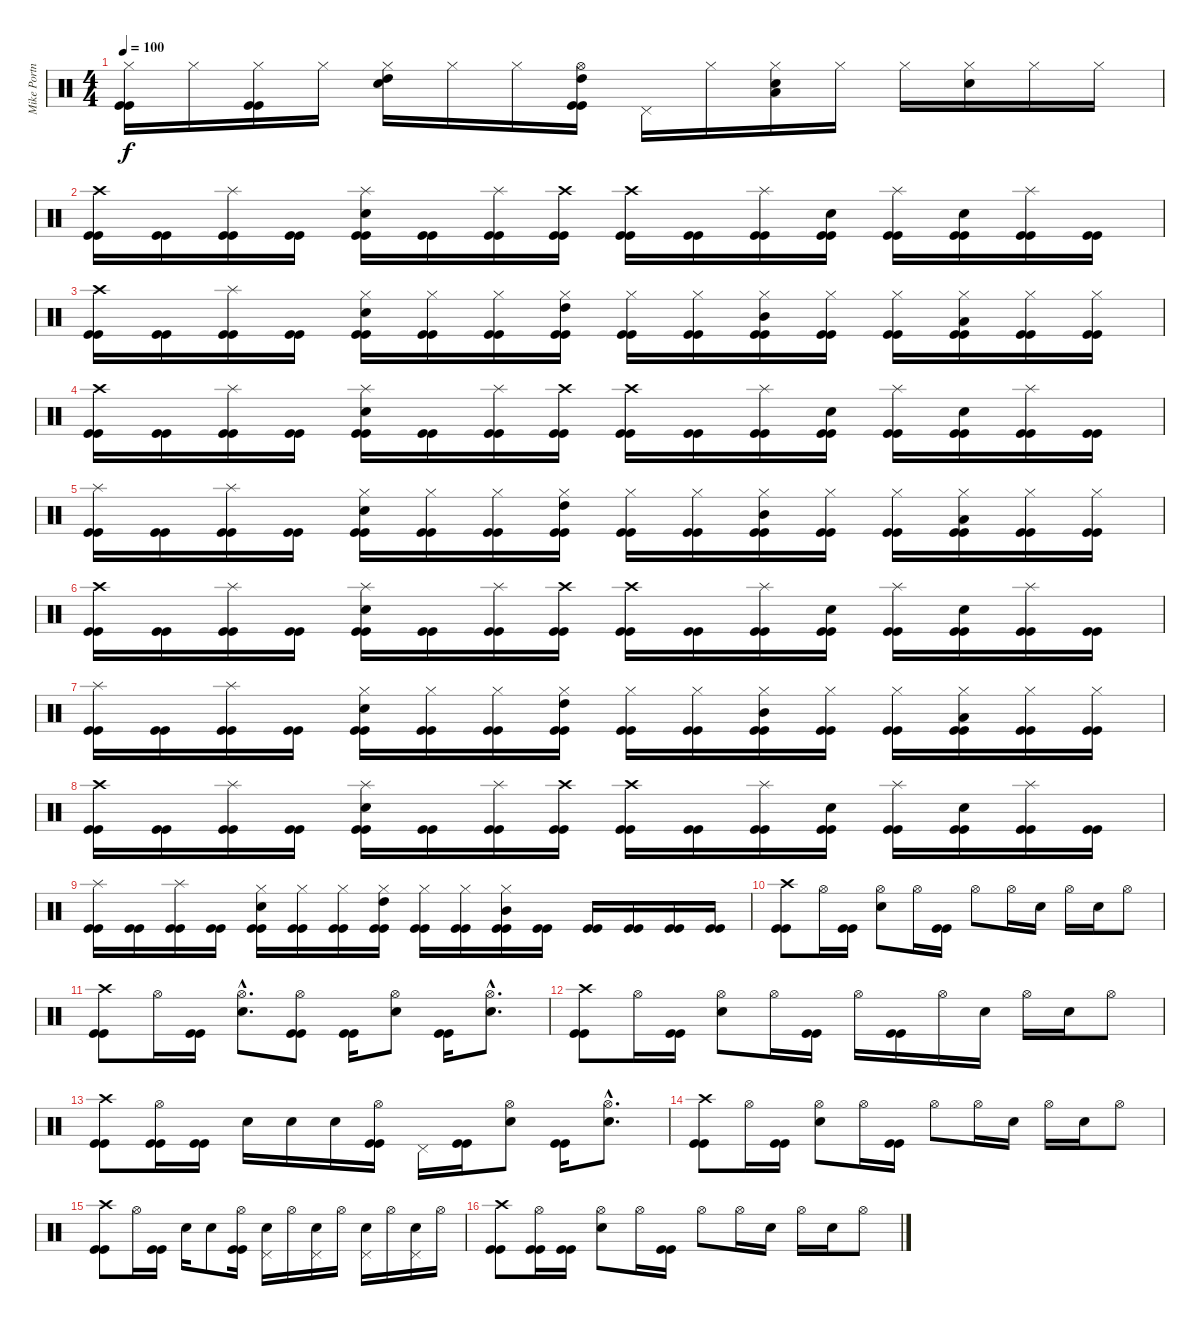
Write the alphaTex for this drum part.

\track ("Mike Portnoy - Drum" "Mike Portn") {instrument percussion}
\staff {score}
\articulation defaults
\ts (4 4)
\tempo 100
\clef neutral
\ks c
("Hi-Hat (closed)" "Kick (hit)" "Kick (hit)").16{dy f} "Hi-Hat (closed)".16 ("Hi-Hat (closed)" "Kick (hit)" "Kick (hit)").16 "Hi-Hat (closed)".16 ("High Tom (hit)" "Hi-Hat (closed)" "Snare (hit) 2").16 "Hi-Hat (closed)".16 "Hi-Hat (closed)".16 ("High Tom (hit)" "Hi-Hat (open)" "Kick (hit)" "Kick (hit)").16 "Pedal Hi-Hat (hit)".16 "Hi-Hat (closed)".16 ("Low Tom (hit)" "Hi-Hat (closed)" "Snare (hit) 2").16 "Hi-Hat (closed)".16 "Hi-Hat (closed)".16 ("Hi-Hat (closed)" "Snare (hit) 2").16 "Hi-Hat (closed)".16 "Hi-Hat (closed)".16 |
("Crash high (hit)" "Kick (hit)" "Kick (hit)").16 ("Kick (hit)" "Kick (hit)").16 ("Splash (hit)" "Kick (hit)" "Kick (hit)").16 ("Kick (hit)" "Kick (hit)").16 ("Splash (hit)" "Snare (hit) 2" "Kick (hit)" "Kick (hit)").16 ("Kick (hit)" "Kick (hit)").16 ("Splash (hit)" "Kick (hit)" "Kick (hit)").16 ("Crash high (hit)" "Kick (hit)" "Kick (hit)").16 ("Crash high (hit)" "Kick (hit)" "Kick (hit)").16 ("Kick (hit)" "Kick (hit)").16 ("Splash (hit)" "Kick (hit)" "Kick (hit)").16 ("Snare (hit) 2" "Kick (hit)" "Kick (hit)").16 ("Splash (hit)" "Kick (hit)" "Kick (hit)").16 ("Snare (hit) 2" "Kick (hit)" "Kick (hit)").16 ("Splash (hit)" "Kick (hit)" "Kick (hit)").16 ("Kick (hit)" "Kick (hit)").16 |
("Crash high (hit)" "Kick (hit)" "Kick (hit)").16 ("Kick (hit)" "Kick (hit)").16 ("Splash (hit)" "Kick (hit)" "Kick (hit)").16 ("Kick (hit)" "Kick (hit)").16 ("Hi-Hat (closed)" "Snare (hit) 2" "Kick (hit)" "Kick (hit)").16 ("Hi-Hat (closed)" "Kick (hit)" "Kick (hit)").16 ("Hi-Hat (closed)" "Kick (hit)" "Kick (hit)").16 ("Hi-Hat (closed)" "High Tom (hit)" "Kick (hit)" "Kick (hit)").16 ("Hi-Hat (closed)" "Kick (hit)" "Kick (hit)").16 ("Hi-Hat (closed)" "Kick (hit)" "Kick (hit)").16 ("Hi-Hat (closed)" "Mid Tom (hit)" "Kick (hit)" "Kick (hit)").16 ("Hi-Hat (closed)" "Kick (hit)" "Kick (hit)").16 ("Hi-Hat (closed)" "Kick (hit)" "Kick (hit)").16 ("Hi-Hat (closed)" "Low Tom (hit)" "Kick (hit)" "Kick (hit)").16 ("Hi-Hat (closed)" "Kick (hit)" "Kick (hit)").16 ("Hi-Hat (closed)" "Kick (hit)" "Kick (hit)").16 |
("Crash high (hit)" "Kick (hit)" "Kick (hit)").16 ("Kick (hit)" "Kick (hit)").16 ("Splash (hit)" "Kick (hit)" "Kick (hit)").16 ("Kick (hit)" "Kick (hit)").16 ("Splash (hit)" "Snare (hit) 2" "Kick (hit)" "Kick (hit)").16 ("Kick (hit)" "Kick (hit)").16 ("Splash (hit)" "Kick (hit)" "Kick (hit)").16 ("Crash high (hit)" "Kick (hit)" "Kick (hit)").16 ("Crash high (hit)" "Kick (hit)" "Kick (hit)").16 ("Kick (hit)" "Kick (hit)").16 ("Splash (hit)" "Kick (hit)" "Kick (hit)").16 ("Snare (hit) 2" "Kick (hit)" "Kick (hit)").16 ("Splash (hit)" "Kick (hit)" "Kick (hit)").16 ("Snare (hit) 2" "Kick (hit)" "Kick (hit)").16 ("Splash (hit)" "Kick (hit)" "Kick (hit)").16 ("Kick (hit)" "Kick (hit)").16 |
("Splash (hit)" "Kick (hit)" "Kick (hit)").16 ("Kick (hit)" "Kick (hit)").16 ("Splash (hit)" "Kick (hit)" "Kick (hit)").16 ("Kick (hit)" "Kick (hit)").16 ("Hi-Hat (closed)" "Snare (hit) 2" "Kick (hit)" "Kick (hit)").16 ("Hi-Hat (closed)" "Kick (hit)" "Kick (hit)").16 ("Hi-Hat (closed)" "Kick (hit)" "Kick (hit)").16 ("Hi-Hat (closed)" "High Tom (hit)" "Kick (hit)" "Kick (hit)").16 ("Hi-Hat (closed)" "Kick (hit)" "Kick (hit)").16 ("Hi-Hat (closed)" "Kick (hit)" "Kick (hit)").16 ("Hi-Hat (closed)" "Mid Tom (hit)" "Kick (hit)" "Kick (hit)").16 ("Hi-Hat (closed)" "Kick (hit)" "Kick (hit)").16 ("Hi-Hat (closed)" "Kick (hit)" "Kick (hit)").16 ("Hi-Hat (closed)" "Low Tom (hit)" "Kick (hit)" "Kick (hit)").16 ("Hi-Hat (closed)" "Kick (hit)" "Kick (hit)").16 ("Hi-Hat (closed)" "Kick (hit)" "Kick (hit)").16 |
("Crash high (hit)" "Kick (hit)" "Kick (hit)").16 ("Kick (hit)" "Kick (hit)").16 ("Splash (hit)" "Kick (hit)" "Kick (hit)").16 ("Kick (hit)" "Kick (hit)").16 ("Splash (hit)" "Snare (hit) 2" "Kick (hit)" "Kick (hit)").16 ("Kick (hit)" "Kick (hit)").16 ("Splash (hit)" "Kick (hit)" "Kick (hit)").16 ("Crash high (hit)" "Kick (hit)" "Kick (hit)").16 ("Crash high (hit)" "Kick (hit)" "Kick (hit)").16 ("Kick (hit)" "Kick (hit)").16 ("Splash (hit)" "Kick (hit)" "Kick (hit)").16 ("Snare (hit) 2" "Kick (hit)" "Kick (hit)").16 ("Splash (hit)" "Kick (hit)" "Kick (hit)").16 ("Snare (hit) 2" "Kick (hit)" "Kick (hit)").16 ("Splash (hit)" "Kick (hit)" "Kick (hit)").16 ("Kick (hit)" "Kick (hit)").16 |
("Splash (hit)" "Kick (hit)" "Kick (hit)").16 ("Kick (hit)" "Kick (hit)").16 ("Splash (hit)" "Kick (hit)" "Kick (hit)").16 ("Kick (hit)" "Kick (hit)").16 ("Hi-Hat (closed)" "Snare (hit) 2" "Kick (hit)" "Kick (hit)").16 ("Hi-Hat (closed)" "Kick (hit)" "Kick (hit)").16 ("Hi-Hat (closed)" "Kick (hit)" "Kick (hit)").16 ("Hi-Hat (closed)" "High Tom (hit)" "Kick (hit)" "Kick (hit)").16 ("Hi-Hat (closed)" "Kick (hit)" "Kick (hit)").16 ("Hi-Hat (closed)" "Kick (hit)" "Kick (hit)").16 ("Hi-Hat (closed)" "Mid Tom (hit)" "Kick (hit)" "Kick (hit)").16 ("Hi-Hat (closed)" "Kick (hit)" "Kick (hit)").16 ("Hi-Hat (closed)" "Kick (hit)" "Kick (hit)").16 ("Hi-Hat (closed)" "Low Tom (hit)" "Kick (hit)" "Kick (hit)").16 ("Hi-Hat (closed)" "Kick (hit)" "Kick (hit)").16 ("Hi-Hat (closed)" "Kick (hit)" "Kick (hit)").16 |
("Crash high (hit)" "Kick (hit)" "Kick (hit)").16 ("Kick (hit)" "Kick (hit)").16 ("Splash (hit)" "Kick (hit)" "Kick (hit)").16 ("Kick (hit)" "Kick (hit)").16 ("Splash (hit)" "Snare (hit) 2" "Kick (hit)" "Kick (hit)").16 ("Kick (hit)" "Kick (hit)").16 ("Splash (hit)" "Kick (hit)" "Kick (hit)").16 ("Crash high (hit)" "Kick (hit)" "Kick (hit)").16 ("Crash high (hit)" "Kick (hit)" "Kick (hit)").16 ("Kick (hit)" "Kick (hit)").16 ("Splash (hit)" "Kick (hit)" "Kick (hit)").16 ("Snare (hit) 2" "Kick (hit)" "Kick (hit)").16 ("Splash (hit)" "Kick (hit)" "Kick (hit)").16 ("Snare (hit) 2" "Kick (hit)" "Kick (hit)").16 ("Splash (hit)" "Kick (hit)" "Kick (hit)").16 ("Kick (hit)" "Kick (hit)").16 |
("Splash (hit)" "Kick (hit)" "Kick (hit)").16 ("Kick (hit)" "Kick (hit)").16 ("Splash (hit)" "Kick (hit)" "Kick (hit)").16 ("Kick (hit)" "Kick (hit)").16 ("Hi-Hat (closed)" "Snare (hit) 2" "Kick (hit)" "Kick (hit)").16 ("Hi-Hat (closed)" "Kick (hit)" "Kick (hit)").16 ("Hi-Hat (closed)" "Kick (hit)" "Kick (hit)").16 ("Hi-Hat (closed)" "High Tom (hit)" "Kick (hit)" "Kick (hit)").16 ("Hi-Hat (closed)" "Kick (hit)" "Kick (hit)").16 ("Hi-Hat (closed)" "Kick (hit)" "Kick (hit)").16 ("Hi-Hat (closed)" "Mid Tom (hit)" "Kick (hit)" "Kick (hit)").16 ("Kick (hit)" "Kick (hit)").16 ("Kick (hit)" "Kick (hit)").16 ("Kick (hit)" "Kick (hit)").16 ("Kick (hit)" "Kick (hit)").16 ("Kick (hit)" "Kick (hit)").16 |
("Crash high (hit)" "Kick (hit)" "Kick (hit)").8 "Hi-Hat (open)".16 ("Kick (hit)" "Kick (hit)").16 ("Hi-Hat (open)" "Snare (hit) 2").8 "Hi-Hat (open)".16 ("Kick (hit)" "Kick (hit)").16 "Hi-Hat (open)".8 "Hi-Hat (open)".16 "Snare (hit) 2".16 "Hi-Hat (open)".16 "Snare (hit) 2".16 "Hi-Hat (open)".8 |
("Crash high (hit)" "Kick (hit)" "Kick (hit)").8 "Hi-Hat (open)".16 ("Kick (hit)" "Kick (hit)").16 ("Hi-Hat (open)"{hac} "Snare (hit) 2"{hac}).8{d} ("Hi-Hat (open)" "Kick (hit)" "Kick (hit)").8 ("Kick (hit)" "Kick (hit)").16 ("Hi-Hat (open)" "Snare (hit) 2").8 ("Kick (hit)" "Kick (hit)").16 ("Hi-Hat (open)"{hac} "Snare (hit) 2"{hac}).8{d} |
("Crash high (hit)" "Kick (hit)" "Kick (hit)").8 "Hi-Hat (open)".16 ("Kick (hit)" "Kick (hit)").16 ("Hi-Hat (open)" "Snare (hit) 2").8 "Hi-Hat (open)".16 ("Kick (hit)" "Kick (hit)").16 "Hi-Hat (open)".16 ("Kick (hit)" "Kick (hit)").16 "Hi-Hat (open)".16 "Snare (hit) 2".16 "Hi-Hat (open)".16 "Snare (hit) 2".16 "Hi-Hat (open)".8 |
("Crash high (hit)" "Kick (hit)" "Kick (hit)").8 ("Hi-Hat (open)" "Kick (hit)" "Kick (hit)").16 ("Kick (hit)" "Kick (hit)").16 "Snare (hit) 2".16 "Snare (hit) 2".16 "Snare (hit) 2".16 ("Hi-Hat (open)" "Kick (hit)" "Kick (hit)").16 "Pedal Hi-Hat (hit)".16 ("Kick (hit)" "Kick (hit)").16 ("Hi-Hat (open)" "Snare (hit) 2").8 ("Kick (hit)" "Kick (hit)").16 ("Hi-Hat (open)"{hac} "Snare (hit) 2"{hac}).8{d} |
("Crash high (hit)" "Kick (hit)" "Kick (hit)").8 "Hi-Hat (open)".16 ("Kick (hit)" "Kick (hit)").16 ("Hi-Hat (open)" "Snare (hit) 2").8 "Hi-Hat (open)".16 ("Kick (hit)" "Kick (hit)").16 "Hi-Hat (open)".8 "Hi-Hat (open)".16 "Snare (hit) 2".16 "Hi-Hat (open)".16 "Snare (hit) 2".16 "Hi-Hat (open)".8 |
("Crash high (hit)" "Kick (hit)" "Kick (hit)").8 "Hi-Hat (open)".16 ("Kick (hit)" "Kick (hit)").16 "Snare (hit) 2".16 "Snare (hit) 2".8 ("Hi-Hat (open)" "Kick (hit)" "Kick (hit)").16 ("Pedal Hi-Hat (hit)" "Snare (hit) 2").16 "Hi-Hat (open)".16 ("Pedal Hi-Hat (hit)" "Snare (hit) 2").16 "Hi-Hat (open)".16 ("Pedal Hi-Hat (hit)" "Snare (hit) 2").16 "Hi-Hat (open)".16 ("Pedal Hi-Hat (hit)" "Snare (hit) 2").16 "Hi-Hat (open)".16 |
("Crash high (hit)" "Kick (hit)" "Kick (hit)").8 ("Hi-Hat (open)" "Kick (hit)" "Kick (hit)").16 ("Kick (hit)" "Kick (hit)").16 ("Hi-Hat (open)" "Snare (hit) 2").8 "Hi-Hat (open)".16 ("Kick (hit)" "Kick (hit)").16 "Hi-Hat (open)".8 "Hi-Hat (open)".16 "Snare (hit) 2".16 "Hi-Hat (open)".16 "Snare (hit) 2".16 "Hi-Hat (open)".8
